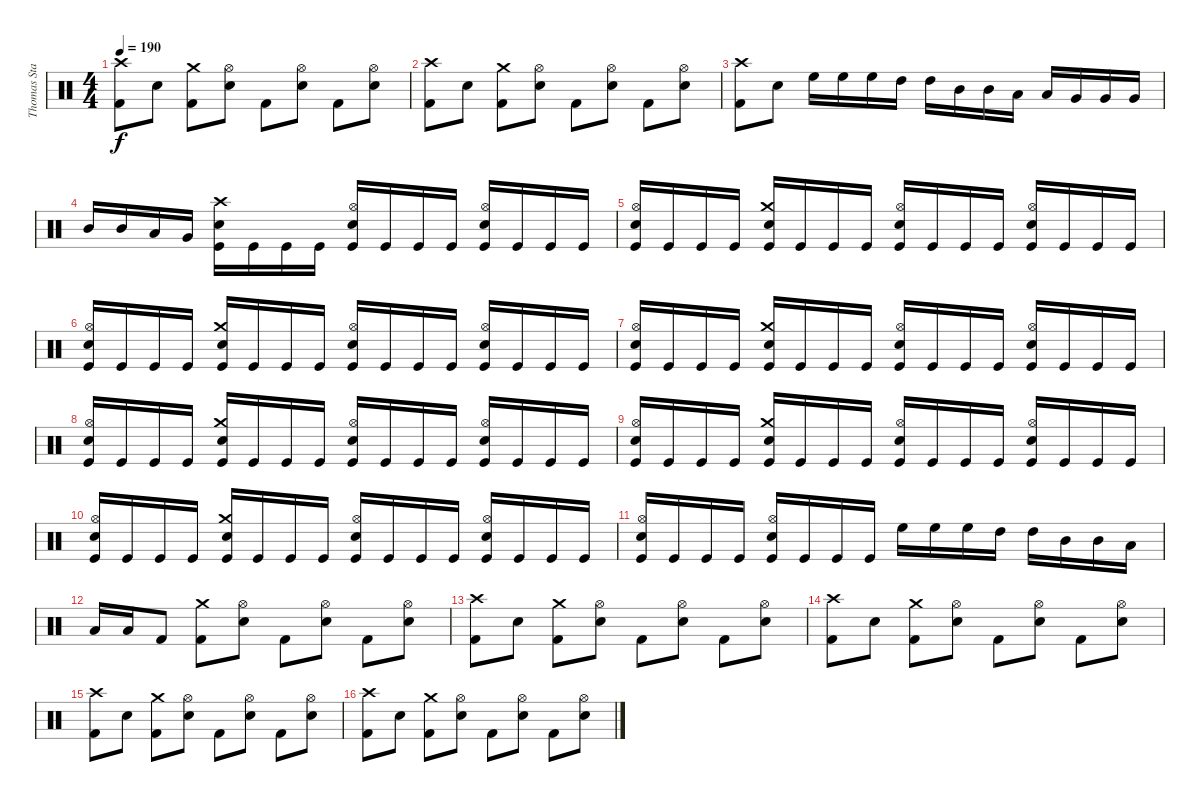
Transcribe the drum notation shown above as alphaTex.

\track ("Thomas Stauch" "Thomas Sta") {instrument percussion}
\staff {score}
\articulation defaults
\ts (4 4)
\tempo 190
\clef neutral
\ks c
("Crash high (hit)" "Kick (hit) 2").8{dy f} "Electric Snare (hit)".8 ("Crash medium (hit)" "Kick (hit) 2").8 ("Hi-Hat (open)" "Electric Snare (hit)").8 "Kick (hit) 2".8 ("Hi-Hat (open)" "Electric Snare (hit)").8 "Kick (hit) 2".8 ("Hi-Hat (open)" "Electric Snare (hit)").8 |
("Crash high (hit)" "Kick (hit) 2").8 "Electric Snare (hit)".8 ("Crash medium (hit)" "Kick (hit) 2").8 ("Hi-Hat (open)" "Electric Snare (hit)").8 "Kick (hit) 2".8 ("Hi-Hat (open)" "Electric Snare (hit)").8 "Kick (hit) 2".8 ("Hi-Hat (open)" "Electric Snare (hit)").8 |
("Crash high (hit)" "Kick (hit) 2").8 "Electric Snare (hit)".8 "High Floor Tom (hit)".16 "High Floor Tom (hit)".16 "High Floor Tom (hit)".16 "High Tom (hit)".16 "High Tom (hit)".16 "Mid Tom (hit)".16 "Mid Tom (hit)".16 "Low Tom (hit)".16 "Low Tom (hit)".16 "Very Low Tom (hit)".16 "Very Low Tom (hit)".16 "Very Low Tom (hit)".16 |
"Mid Tom (hit)".16 "Mid Tom (hit)".16 "Low Tom (hit)".16 "Very Low Tom (hit)".16 ("Crash high (hit)" "Electric Snare (hit)" "Kick (hit)").16 "Kick (hit)".16 "Kick (hit)".16 "Kick (hit)".16 ("Hi-Hat (open)" "Electric Snare (hit)" "Kick (hit)").16 "Kick (hit)".16 "Kick (hit)".16 "Kick (hit)".16 ("Hi-Hat (open)" "Electric Snare (hit)" "Kick (hit)").16 "Kick (hit)".16 "Kick (hit)".16 "Kick (hit)".16 |
("Hi-Hat (open)" "Electric Snare (hit)" "Kick (hit)").16 "Kick (hit)".16 "Kick (hit)".16 "Kick (hit)".16 ("Crash medium (hit)" "Electric Snare (hit)" "Kick (hit)").16 "Kick (hit)".16 "Kick (hit)".16 "Kick (hit)".16 ("Hi-Hat (open)" "Electric Snare (hit)" "Kick (hit)").16 "Kick (hit)".16 "Kick (hit)".16 "Kick (hit)".16 ("Hi-Hat (open)" "Electric Snare (hit)" "Kick (hit)").16 "Kick (hit)".16 "Kick (hit)".16 "Kick (hit)".16 |
("Hi-Hat (open)" "Electric Snare (hit)" "Kick (hit)").16 "Kick (hit)".16 "Kick (hit)".16 "Kick (hit)".16 ("Crash medium (hit)" "Electric Snare (hit)" "Kick (hit)").16 "Kick (hit)".16 "Kick (hit)".16 "Kick (hit)".16 ("Hi-Hat (open)" "Electric Snare (hit)" "Kick (hit)").16 "Kick (hit)".16 "Kick (hit)".16 "Kick (hit)".16 ("Hi-Hat (open)" "Electric Snare (hit)" "Kick (hit)").16 "Kick (hit)".16 "Kick (hit)".16 "Kick (hit)".16 |
("Hi-Hat (open)" "Electric Snare (hit)" "Kick (hit)").16 "Kick (hit)".16 "Kick (hit)".16 "Kick (hit)".16 ("Crash medium (hit)" "Electric Snare (hit)" "Kick (hit)").16 "Kick (hit)".16 "Kick (hit)".16 "Kick (hit)".16 ("Hi-Hat (open)" "Electric Snare (hit)" "Kick (hit)").16 "Kick (hit)".16 "Kick (hit)".16 "Kick (hit)".16 ("Hi-Hat (open)" "Electric Snare (hit)" "Kick (hit)").16 "Kick (hit)".16 "Kick (hit)".16 "Kick (hit)".16 |
("Hi-Hat (open)" "Electric Snare (hit)" "Kick (hit)").16 "Kick (hit)".16 "Kick (hit)".16 "Kick (hit)".16 ("Crash medium (hit)" "Electric Snare (hit)" "Kick (hit)").16 "Kick (hit)".16 "Kick (hit)".16 "Kick (hit)".16 ("Hi-Hat (open)" "Electric Snare (hit)" "Kick (hit)").16 "Kick (hit)".16 "Kick (hit)".16 "Kick (hit)".16 ("Hi-Hat (open)" "Electric Snare (hit)" "Kick (hit)").16 "Kick (hit)".16 "Kick (hit)".16 "Kick (hit)".16 |
("Hi-Hat (open)" "Electric Snare (hit)" "Kick (hit)").16 "Kick (hit)".16 "Kick (hit)".16 "Kick (hit)".16 ("Crash medium (hit)" "Electric Snare (hit)" "Kick (hit)").16 "Kick (hit)".16 "Kick (hit)".16 "Kick (hit)".16 ("Hi-Hat (open)" "Electric Snare (hit)" "Kick (hit)").16 "Kick (hit)".16 "Kick (hit)".16 "Kick (hit)".16 ("Hi-Hat (open)" "Electric Snare (hit)" "Kick (hit)").16 "Kick (hit)".16 "Kick (hit)".16 "Kick (hit)".16 |
("Hi-Hat (open)" "Electric Snare (hit)" "Kick (hit)").16 "Kick (hit)".16 "Kick (hit)".16 "Kick (hit)".16 ("Crash medium (hit)" "Electric Snare (hit)" "Kick (hit)").16 "Kick (hit)".16 "Kick (hit)".16 "Kick (hit)".16 ("Hi-Hat (open)" "Electric Snare (hit)" "Kick (hit)").16 "Kick (hit)".16 "Kick (hit)".16 "Kick (hit)".16 ("Hi-Hat (open)" "Electric Snare (hit)" "Kick (hit)").16 "Kick (hit)".16 "Kick (hit)".16 "Kick (hit)".16 |
("Hi-Hat (open)" "Electric Snare (hit)" "Kick (hit)").16 "Kick (hit)".16 "Kick (hit)".16 "Kick (hit)".16 ("Hi-Hat (open)" "Electric Snare (hit)" "Kick (hit)").16 "Kick (hit)".16 "Kick (hit)".16 "Kick (hit)".16 "High Floor Tom (hit)".16 "High Floor Tom (hit)".16 "High Floor Tom (hit)".16 "High Tom (hit)".16 "High Tom (hit)".16 "Mid Tom (hit)".16 "Mid Tom (hit)".16 "Low Tom (hit)".16 |
"Low Tom (hit)".16 "Low Tom (hit)".16 "Kick (hit) 2".8 ("Crash medium (hit)" "Kick (hit) 2").8 ("Hi-Hat (open)" "Electric Snare (hit)").8 "Kick (hit) 2".8 ("Hi-Hat (open)" "Electric Snare (hit)").8 "Kick (hit) 2".8 ("Hi-Hat (open)" "Electric Snare (hit)").8 |
("Crash high (hit)" "Kick (hit) 2").8 "Electric Snare (hit)".8 ("Crash medium (hit)" "Kick (hit) 2").8 ("Hi-Hat (open)" "Electric Snare (hit)").8 "Kick (hit) 2".8 ("Hi-Hat (open)" "Electric Snare (hit)").8 "Kick (hit) 2".8 ("Hi-Hat (open)" "Electric Snare (hit)").8 |
("Crash high (hit)" "Kick (hit) 2").8 "Electric Snare (hit)".8 ("Crash medium (hit)" "Kick (hit) 2").8 ("Hi-Hat (open)" "Electric Snare (hit)").8 "Kick (hit) 2".8 ("Hi-Hat (open)" "Electric Snare (hit)").8 "Kick (hit) 2".8 ("Hi-Hat (open)" "Electric Snare (hit)").8 |
("Crash high (hit)" "Kick (hit) 2").8 "Electric Snare (hit)".8 ("Crash medium (hit)" "Kick (hit) 2").8 ("Hi-Hat (open)" "Electric Snare (hit)").8 "Kick (hit) 2".8 ("Hi-Hat (open)" "Electric Snare (hit)").8 "Kick (hit) 2".8 ("Hi-Hat (open)" "Electric Snare (hit)").8 |
("Crash high (hit)" "Kick (hit) 2").8 "Electric Snare (hit)".8 ("Crash medium (hit)" "Kick (hit) 2").8 ("Hi-Hat (open)" "Electric Snare (hit)").8 "Kick (hit) 2".8 ("Hi-Hat (open)" "Electric Snare (hit)").8 "Kick (hit) 2".8 ("Hi-Hat (open)" "Electric Snare (hit)").8
